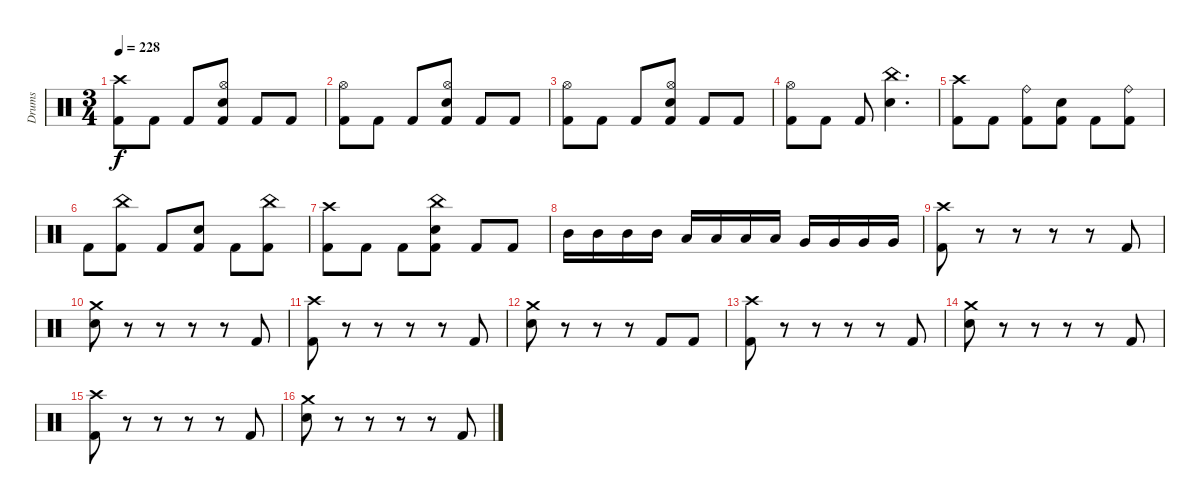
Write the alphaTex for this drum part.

\track ("Drums" "Drums") {instrument percussion}
\staff {score}
\articulation defaults
\ts (3 4)
\tempo 228
\clef neutral
\ks c
("Crash high (hit)" "Kick (hit) 2").8{dy f} "Kick (hit) 2".8 "Kick (hit) 2".8 ("Hi-Hat (open)" "Electric Snare (hit)" "Kick (hit) 2").8 "Kick (hit) 2".8 "Kick (hit) 2".8 |
("Hi-Hat (open)" "Kick (hit) 2").8 "Kick (hit) 2".8 "Kick (hit) 2".8 ("Hi-Hat (open)" "Electric Snare (hit)" "Kick (hit) 2").8 "Kick (hit) 2".8 "Kick (hit) 2".8 |
("Hi-Hat (open)" "Kick (hit) 2").8 "Kick (hit) 2".8 "Kick (hit) 2".8 ("Hi-Hat (open)" "Electric Snare (hit)" "Kick (hit) 2").8 "Kick (hit) 2".8 "Kick (hit) 2".8 |
("Hi-Hat (open)" "Kick (hit) 2").8 "Kick (hit) 2".8 "Kick (hit) 2".8 ("China (hit)" "Electric Snare (hit)").4{d} |
("Crash high (hit)" "Kick (hit) 2").8 "Kick (hit) 2".8 ("Ride (bell)" "Kick (hit) 2").8 ("Electric Snare (hit)" "Kick (hit) 2").8 "Kick (hit) 2".8 ("Ride (bell)" "Kick (hit) 2").8 |
"Kick (hit) 2".8 ("China (hit)" "Kick (hit) 2").8 "Kick (hit) 2".8 ("Electric Snare (hit)" "Kick (hit) 2").8 "Kick (hit) 2".8 ("China (hit)" "Kick (hit) 2").8 |
("Crash high (hit)" "Kick (hit) 2").8 "Kick (hit) 2".8 "Kick (hit) 2".8 ("China (hit)" "Electric Snare (hit)" "Kick (hit) 2").8 "Kick (hit) 2".8 "Kick (hit) 2".8 |
"Mid Tom (hit)".16 "Mid Tom (hit)".16 "Mid Tom (hit)".16 "Mid Tom (hit)".16 "Low Tom (hit)".16 "Low Tom (hit)".16 "Low Tom (hit)".16 "Low Tom (hit)".16 "Very Low Tom (hit)".16 "Very Low Tom (hit)".16 "Very Low Tom (hit)".16 "Very Low Tom (hit)".16 |
("Crash high (hit)" "Kick (hit) 2").8{volume 16} r.8 r.8 r.8 r.8 "Kick (hit) 2".8 |
("Crash medium (hit)" "Electric Snare (hit)").8 r.8 r.8 r.8 r.8 "Kick (hit) 2".8 |
("Crash high (hit)" "Kick (hit) 2").8 r.8 r.8 r.8 r.8 "Kick (hit) 2".8 |
("Crash medium (hit)" "Electric Snare (hit)").8 r.8 r.8 r.8 "Kick (hit) 2".8 "Kick (hit) 2".8 |
("Crash high (hit)" "Kick (hit) 2").8 r.8 r.8 r.8 r.8 "Kick (hit) 2".8 |
("Crash medium (hit)" "Electric Snare (hit)").8 r.8 r.8 r.8 r.8 "Kick (hit) 2".8 |
("Crash high (hit)" "Kick (hit) 2").8 r.8 r.8 r.8 r.8 "Kick (hit) 2".8 |
("Crash medium (hit)" "Electric Snare (hit)").8 r.8 r.8 r.8 r.8 "Kick (hit) 2".8
